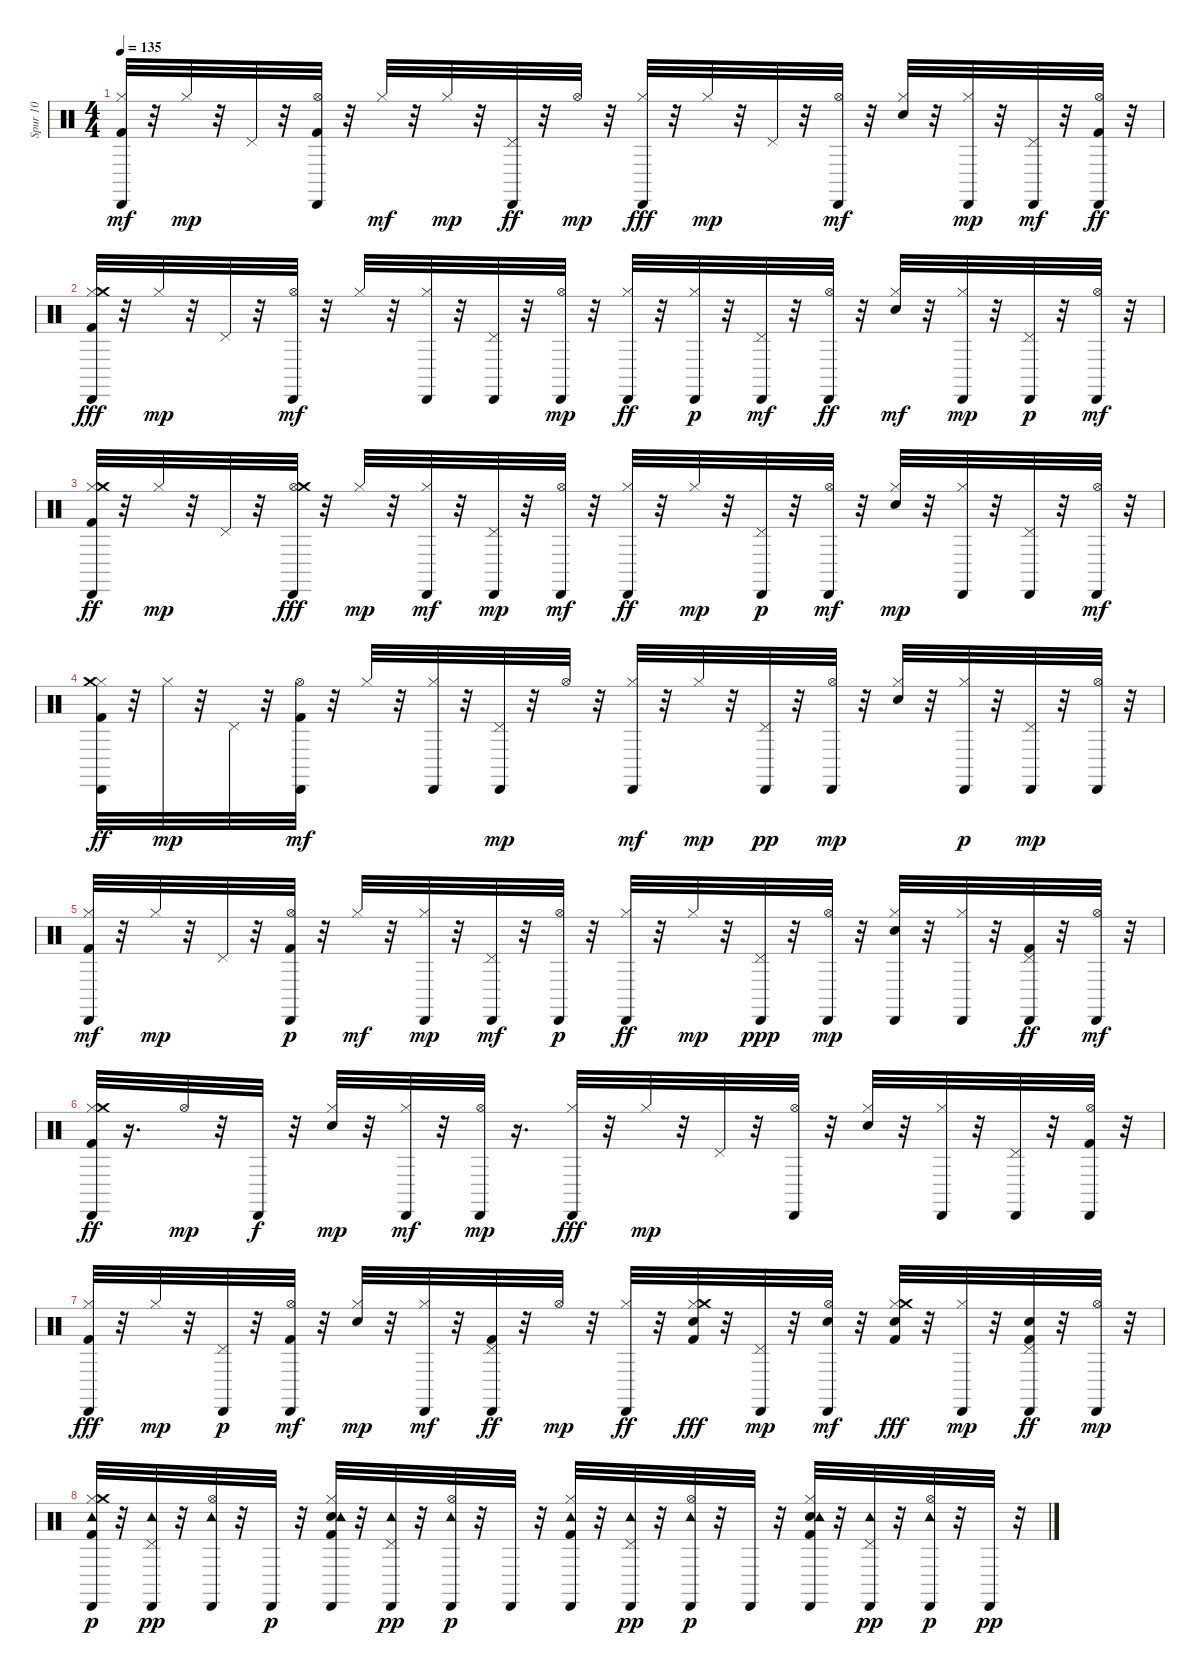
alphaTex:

\track ("Spur 10" "Spur 10") {instrument percussion}
\staff {score}
\articulation defaults
\ts (4 4)
\tempo 135
\clef neutral
\ks c
("Kick (hit) 2" "Hi-Hat (closed)" "Cabasa (hit)").32{dy mf} r.32 "Hi-Hat (closed)".32{dy mp} r.32 "Pedal Hi-Hat (hit)".32 r.32 ("Kick (hit) 2" "Hi-Hat (open)" "Cabasa (hit)").32 r.32 "Hi-Hat (closed)".32{dy mf} r.32 "Hi-Hat (closed)".32{dy mp} r.32 ("Pedal Hi-Hat (hit)" "Cabasa (hit)").32{dy ff} r.32 "Hi-Hat (open)".32{dy mp} r.32 ("Hi-Hat (closed)" "Cabasa (hit)").32{dy fff} r.32 "Hi-Hat (closed)".32{dy mp} r.32 "Pedal Hi-Hat (hit)".32 r.32 ("Hi-Hat (open)" "Cabasa (hit)").32{dy mf} r.32 ("Hand Clap (hit)" "Hi-Hat (closed)").32 r.32 ("Hi-Hat (closed)" "Cabasa (hit)").32{dy mp} r.32 ("Pedal Hi-Hat (hit)" "Cabasa (hit)").32{dy mf} r.32 ("Kick (hit) 2" "Hi-Hat (open)" "Cabasa (hit)").32{dy ff} r.32 |
("Kick (hit) 2" "Hi-Hat (closed)" "Crash medium (hit)" "Cabasa (hit)").32{dy fff} r.32 "Hi-Hat (closed)".32{dy mp} r.32 "Pedal Hi-Hat (hit)".32 r.32 ("Hi-Hat (open)" "Cabasa (hit)").32{dy mf} r.32 "Hi-Hat (closed)".32 r.32 ("Hi-Hat (closed)" "Cabasa (hit)").32 r.32 ("Pedal Hi-Hat (hit)" "Cabasa (hit)").32 r.32 ("Hi-Hat (open)" "Cabasa (hit)").32{dy mp} r.32 ("Hi-Hat (closed)" "Cabasa (hit)").32{dy ff} r.32 ("Hi-Hat (closed)" "Cabasa (hit)").32{dy p} r.32 ("Pedal Hi-Hat (hit)" "Cabasa (hit)").32{dy mf} r.32 ("Hi-Hat (open)" "Cabasa (hit)").32{dy ff} r.32 ("Hand Clap (hit)" "Hi-Hat (closed)").32{dy mf} r.32 ("Hi-Hat (closed)" "Cabasa (hit)").32{dy mp} r.32 ("Pedal Hi-Hat (hit)" "Cabasa (hit)").32{dy p} r.32 ("Hi-Hat (open)" "Cabasa (hit)").32{dy mf} r.32 |
("Kick (hit) 2" "Hi-Hat (closed)" "Crash medium (hit)" "Cabasa (hit)").32{dy ff} r.32 "Hi-Hat (closed)".32{dy mp} r.32 "Pedal Hi-Hat (hit)".32 r.32 ("Hi-Hat (open)" "Crash medium (hit)" "Cabasa (hit)").32{dy fff} r.32 "Hi-Hat (closed)".32{dy mp} r.32 ("Hi-Hat (closed)" "Cabasa (hit)").32{dy mf} r.32 ("Pedal Hi-Hat (hit)" "Cabasa (hit)").32{dy mp} r.32 ("Hi-Hat (open)" "Cabasa (hit)").32{dy mf} r.32 ("Hi-Hat (closed)" "Cabasa (hit)").32{dy ff} r.32 "Hi-Hat (closed)".32{dy mp} r.32 ("Pedal Hi-Hat (hit)" "Cabasa (hit)").32{dy p} r.32 ("Hi-Hat (open)" "Cabasa (hit)").32{dy mf} r.32 ("Hand Clap (hit)" "Hi-Hat (closed)").32{dy mp} r.32 ("Hi-Hat (closed)" "Cabasa (hit)").32 r.32 ("Pedal Hi-Hat (hit)" "Cabasa (hit)").32 r.32 ("Hi-Hat (open)" "Cabasa (hit)").32{dy mf} r.32 |
("Kick (hit) 2" "Hi-Hat (closed)" "Crash medium (hit)" "Cabasa (hit)").32{dy ff} r.32 "Hi-Hat (closed)".32{dy mp} r.32 "Pedal Hi-Hat (hit)".32 r.32 ("Kick (hit) 2" "Hi-Hat (open)" "Cabasa (hit)").32{dy mf} r.32 "Hi-Hat (closed)".32 r.32 ("Hi-Hat (closed)" "Cabasa (hit)").32 r.32 ("Pedal Hi-Hat (hit)" "Cabasa (hit)").32{dy mp} r.32 "Hi-Hat (open)".32 r.32 ("Hi-Hat (closed)" "Cabasa (hit)").32{dy mf} r.32 "Hi-Hat (closed)".32{dy mp} r.32 ("Pedal Hi-Hat (hit)" "Cabasa (hit)").32{dy pp} r.32 ("Hi-Hat (open)" "Cabasa (hit)").32{dy mp} r.32 ("Hand Clap (hit)" "Hi-Hat (closed)").32 r.32 ("Hi-Hat (closed)" "Cabasa (hit)").32{dy p} r.32 ("Pedal Hi-Hat (hit)" "Cabasa (hit)").32{dy mp} r.32 ("Hi-Hat (open)" "Cabasa (hit)").32 r.32 |
("Kick (hit) 2" "Hi-Hat (closed)" "Cabasa (hit)").32{dy mf} r.32 "Hi-Hat (closed)".32{dy mp} r.32 "Pedal Hi-Hat (hit)".32 r.32 ("Kick (hit) 2" "Hi-Hat (open)" "Cabasa (hit)").32{dy p} r.32 "Hi-Hat (closed)".32{dy mf} r.32 ("Hi-Hat (closed)" "Cabasa (hit)").32{dy mp} r.32 ("Pedal Hi-Hat (hit)" "Cabasa (hit)").32{dy mf} r.32 ("Hi-Hat (open)" "Cabasa (hit)").32{dy p} r.32 ("Hi-Hat (closed)" "Cabasa (hit)").32{dy ff} r.32 "Hi-Hat (closed)".32{dy mp} r.32 ("Pedal Hi-Hat (hit)" "Cabasa (hit)").32{dy ppp} r.32 ("Hi-Hat (open)" "Cabasa (hit)").32{dy mp} r.32 ("Hand Clap (hit)" "Hi-Hat (closed)" "Cabasa (hit)").32 r.32 ("Hi-Hat (closed)" "Cabasa (hit)").32 r.32 ("Kick (hit) 2" "Pedal Hi-Hat (hit)" "Cabasa (hit)").32{dy ff} r.32 ("Hi-Hat (open)" "Cabasa (hit)").32{dy mf} r.32 |
("Kick (hit) 2" "Hi-Hat (closed)" "Crash medium (hit)" "Cabasa (hit)").32{dy ff} r.16{d} "Hi-Hat (open)".32{dy mp} r.32 "Cabasa (hit)".32{dy f} r.32 ("Hand Clap (hit)" "Hi-Hat (closed)").32{dy mp} r.32 ("Hi-Hat (closed)" "Cabasa (hit)").32{dy mf} r.32 ("Hi-Hat (open)" "Cabasa (hit)").32{dy mp} r.16{d} ("Hi-Hat (closed)" "Cabasa (hit)").32{dy fff} r.32 "Hi-Hat (closed)".32{dy mp} r.32 "Pedal Hi-Hat (hit)".32 r.32 ("Hi-Hat (open)" "Cabasa (hit)").32 r.32 ("Hand Clap (hit)" "Hi-Hat (closed)").32 r.32 ("Hi-Hat (closed)" "Cabasa (hit)").32 r.32 ("Pedal Hi-Hat (hit)" "Cabasa (hit)").32 r.32 ("Kick (hit) 2" "Hi-Hat (open)" "Cabasa (hit)").32 r.32 |
("Kick (hit) 2" "Hi-Hat (closed)" "Cabasa (hit)").32{dy fff} r.32 "Hi-Hat (closed)".32{dy mp} r.32 ("Pedal Hi-Hat (hit)" "Cabasa (hit)").32{dy p} r.32 ("Kick (hit) 2" "Hi-Hat (open)" "Cabasa (hit)").32{dy mf} r.32 ("Hand Clap (hit)" "Hi-Hat (closed)").32{dy mp} r.32 ("Hi-Hat (closed)" "Cabasa (hit)").32{dy mf} r.32 ("Kick (hit) 2" "Pedal Hi-Hat (hit)" "Cabasa (hit)").32{dy ff} r.32 "Hi-Hat (open)".32{dy mp} r.32 ("Hi-Hat (closed)" "Cabasa (hit)").32{dy ff} r.32 ("Kick (hit) 2" "Snare (hit) 2" "Hi-Hat (closed)" "Crash medium (hit)").32{dy fff} r.32 ("Pedal Hi-Hat (hit)" "Cabasa (hit)").32{dy mp} r.32 ("Snare (hit) 2" "Hi-Hat (open)" "Cabasa (hit)").32{dy mf} r.32 ("Kick (hit) 2" "Snare (hit) 2" "Hi-Hat (closed)" "Crash medium (hit)").32{dy fff} r.32 ("Hi-Hat (closed)" "Cabasa (hit)").32{dy mp} r.32 ("Kick (hit) 2" "Snare (hit) 2" "Pedal Hi-Hat (hit)" "Cabasa (hit)").32{dy ff} r.32 ("Hi-Hat (open)" "Cabasa (hit)").32{dy mp} r.32 |
("Kick (hit) 2" "Hi-Hat (closed)" "Tambourine (hit)" "Crash medium (hit)" "Cabasa (hit)").32{dy p} r.32 ("Pedal Hi-Hat (hit)" "Tambourine (hit)" "Cabasa (hit)").32{dy pp} r.32 ("Hi-Hat (open)" "Tambourine (hit)" "Cabasa (hit)").32 r.32 "Cabasa (hit)".32{dy p} r.32 ("Kick (hit) 2" "Snare (hit) 2" "Hi-Hat (closed)" "Tambourine (hit)" "Cabasa (hit)").32 r.32 ("Pedal Hi-Hat (hit)" "Tambourine (hit)" "Cabasa (hit)").32{dy pp} r.32 ("Hi-Hat (open)" "Tambourine (hit)" "Cabasa (hit)").32{dy p} r.32 "Cabasa (hit)".32 r.32 ("Kick (hit) 2" "Hi-Hat (closed)" "Tambourine (hit)" "Cabasa (hit)").32 r.32 ("Pedal Hi-Hat (hit)" "Tambourine (hit)" "Cabasa (hit)").32{dy pp} r.32 ("Hi-Hat (open)" "Tambourine (hit)" "Cabasa (hit)").32{dy p} r.32 "Cabasa (hit)".32 r.32 ("Kick (hit) 2" "Snare (hit) 2" "Hi-Hat (closed)" "Tambourine (hit)" "Cabasa (hit)").32 r.32 ("Pedal Hi-Hat (hit)" "Tambourine (hit)" "Cabasa (hit)").32{dy pp} r.32 ("Hi-Hat (open)" "Tambourine (hit)" "Cabasa (hit)").32{dy p} r.32 "Cabasa (hit)".32{dy pp} r.32
